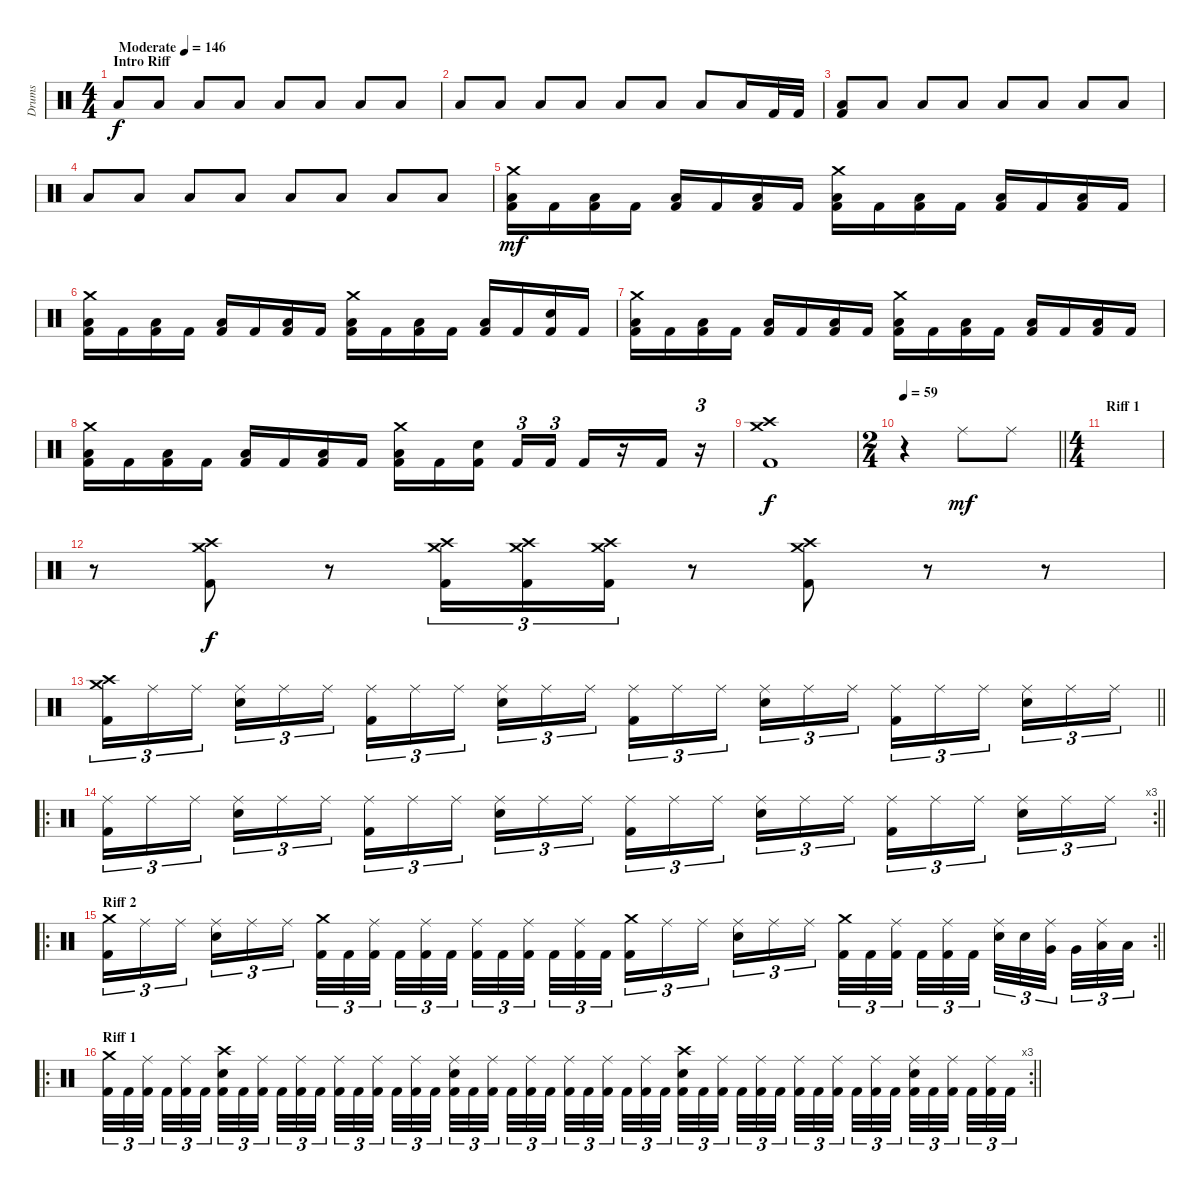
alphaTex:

\track ("Drums" "Drums") {instrument percussion}
\staff {score}
\articulation defaults
\ts (4 4)
\section ("" "Intro Riff")
\tempo (146 "Moderate")
\clef neutral
\ks c "Low Floor Tom (hit)".8{dy f} "Low Floor Tom (hit)".8 "Low Floor Tom (hit)".8 "Low Floor Tom (hit)".8 "Low Floor Tom (hit)".8 "Low Floor Tom (hit)".8 "Low Floor Tom (hit)".8 "Low Floor Tom (hit)".8
|
"Low Floor Tom (hit)".8 "Low Floor Tom (hit)".8 "Low Floor Tom (hit)".8 "Low Floor Tom (hit)".8 "Low Floor Tom (hit)".8 "Low Floor Tom (hit)".8 "Low Floor Tom (hit)".8 "Low Floor Tom (hit)".16 "Kick (hit) 2".32 "Kick (hit) 2".32 |
("Low Floor Tom (hit)" "Kick (hit) 2").8 "Low Floor Tom (hit)".8 "Low Floor Tom (hit)".8 "Low Floor Tom (hit)".8 "Low Floor Tom (hit)".8 "Low Floor Tom (hit)".8 "Low Floor Tom (hit)".8 "Low Floor Tom (hit)".8 |
"Low Floor Tom (hit)".8 "Low Floor Tom (hit)".8 "Low Floor Tom (hit)".8 "Low Floor Tom (hit)".8 "Low Floor Tom (hit)".8 "Low Floor Tom (hit)".8 "Low Floor Tom (hit)".8 "Low Floor Tom (hit)".8 |
("Crash medium (hit)" "Low Floor Tom (hit)" "Kick (hit) 2").16{dy mf} "Kick (hit) 2".16 ("Low Floor Tom (hit)" "Kick (hit) 2").16 "Kick (hit) 2".16 ("Low Floor Tom (hit)" "Kick (hit) 2").16 "Kick (hit) 2".16 ("Low Floor Tom (hit)" "Kick (hit) 2").16 "Kick (hit) 2".16 ("Crash medium (hit)" "Low Floor Tom (hit)" "Kick (hit) 2").16 "Kick (hit) 2".16 ("Low Floor Tom (hit)" "Kick (hit) 2").16 "Kick (hit) 2".16 ("Low Floor Tom (hit)" "Kick (hit) 2").16 "Kick (hit) 2".16 ("Low Floor Tom (hit)" "Kick (hit) 2").16 "Kick (hit) 2".16 |
("Crash medium (hit)" "Low Floor Tom (hit)" "Kick (hit) 2").16 "Kick (hit) 2".16 ("Low Floor Tom (hit)" "Kick (hit) 2").16 "Kick (hit) 2".16 ("Low Floor Tom (hit)" "Kick (hit) 2").16 "Kick (hit) 2".16 ("Low Floor Tom (hit)" "Kick (hit) 2").16 "Kick (hit) 2".16 ("Crash medium (hit)" "Low Floor Tom (hit)" "Kick (hit) 2").16 "Kick (hit) 2".16 ("Low Floor Tom (hit)" "Kick (hit) 2").16 "Kick (hit) 2".16 ("Low Floor Tom (hit)" "Kick (hit) 2").16 "Kick (hit) 2".16 ("Snare (hit) 2" "Kick (hit) 2").16 "Kick (hit) 2".16 |
("Crash medium (hit)" "Low Floor Tom (hit)" "Kick (hit) 2").16 "Kick (hit) 2".16 ("Low Floor Tom (hit)" "Kick (hit) 2").16 "Kick (hit) 2".16 ("Low Floor Tom (hit)" "Kick (hit) 2").16 "Kick (hit) 2".16 ("Low Floor Tom (hit)" "Kick (hit) 2").16 "Kick (hit) 2".16 ("Crash medium (hit)" "Low Floor Tom (hit)" "Kick (hit) 2").16 "Kick (hit) 2".16 ("Low Floor Tom (hit)" "Kick (hit) 2").16 "Kick (hit) 2".16 ("Low Floor Tom (hit)" "Kick (hit) 2").16 "Kick (hit) 2".16 ("Low Floor Tom (hit)" "Kick (hit) 2").16 "Kick (hit) 2".16 |
("Crash medium (hit)" "Low Floor Tom (hit)" "Kick (hit) 2").16 "Kick (hit) 2".16 ("Low Floor Tom (hit)" "Kick (hit) 2").16 "Kick (hit) 2".16 ("Low Floor Tom (hit)" "Kick (hit) 2").16 "Kick (hit) 2".16 ("Low Floor Tom (hit)" "Kick (hit) 2").16 "Kick (hit) 2".16 ("Crash medium (hit)" "Low Floor Tom (hit)" "Kick (hit) 2").16 "Kick (hit) 2".16 ("Snare (hit) 2" "Kick (hit) 2").16{beam splitsecondary} "Kick (hit) 2".16{tu (3 2)} "Kick (hit) 2".16{tu (3 2)} "Kick (hit) 2".16 r.16 "Kick (hit) 2".16 r.16{tu (3 2)} |
("Crash medium (hit)" "Crash high (hit)" "Kick (hit) 2").1{dy f} |
\ts (2 4)
\tempo 59
\barLineRight lightlight
r.4 "Ride (middle)".8{dy mf} "Ride (middle)".8 |
\ts (4 4)
\section ("" "Riff 1")
|
r.8 ("Crash medium (hit)" "Crash high (hit)" "Kick (hit) 2").8{dy f} r.8 ("Crash medium (hit)" "Crash high (hit)" "Kick (hit) 2").16{tu (3 2)} ("Crash medium (hit)" "Crash high (hit)" "Kick (hit) 2").16{tu (3 2)} ("Crash medium (hit)" "Crash high (hit)" "Kick (hit) 2").16{tu (3 2)} r.8 ("Crash medium (hit)" "Crash high (hit)" "Kick (hit) 2").8 r.8 r.8 |
\barLineRight lightlight
("Crash medium (hit)" "Crash high (hit)" "Kick (hit) 2").16{tu (3 2)} "Ride (middle)".16{tu (3 2)} "Ride (middle)".16{tu (3 2) beam splitsecondary} ("Ride (middle)" "Snare (hit) 2").16{tu (3 2)} "Ride (middle)".16{tu (3 2)} "Ride (middle)".16{tu (3 2)} ("Ride (middle)" "Kick (hit) 2").16{tu (3 2)} "Ride (middle)".16{tu (3 2)} "Ride (middle)".16{tu (3 2) beam splitsecondary} ("Ride (middle)" "Snare (hit) 2").16{tu (3 2)} "Ride (middle)".16{tu (3 2)} "Ride (middle)".16{tu (3 2)} ("Ride (middle)" "Kick (hit) 2").16{tu (3 2)} "Ride (middle)".16{tu (3 2)} "Ride (middle)".16{tu (3 2) beam splitsecondary} ("Ride (middle)" "Snare (hit) 2").16{tu (3 2)} "Ride (middle)".16{tu (3 2)} "Ride (middle)".16{tu (3 2)} ("Ride (middle)" "Kick (hit) 2").16{tu (3 2)} "Ride (middle)".16{tu (3 2)} "Ride (middle)".16{tu (3 2) beam splitsecondary} ("Ride (middle)" "Snare (hit) 2").16{tu (3 2)} "Ride (middle)".16{tu (3 2)} "Ride (middle)".16{tu (3 2)} |
\ro
\rc 3
\barLineRight lightlight
("Ride (middle)" "Kick (hit) 2").16{tu (3 2)} "Ride (middle)".16{tu (3 2)} "Ride (middle)".16{tu (3 2) beam splitsecondary} ("Ride (middle)" "Snare (hit) 2").16{tu (3 2)} "Ride (middle)".16{tu (3 2)} "Ride (middle)".16{tu (3 2)} ("Ride (middle)" "Kick (hit) 2").16{tu (3 2)} "Ride (middle)".16{tu (3 2)} "Ride (middle)".16{tu (3 2) beam splitsecondary} ("Ride (middle)" "Snare (hit) 2").16{tu (3 2)} "Ride (middle)".16{tu (3 2)} "Ride (middle)".16{tu (3 2)} ("Ride (middle)" "Kick (hit) 2").16{tu (3 2)} "Ride (middle)".16{tu (3 2)} "Ride (middle)".16{tu (3 2) beam splitsecondary} ("Ride (middle)" "Snare (hit) 2").16{tu (3 2)} "Ride (middle)".16{tu (3 2)} "Ride (middle)".16{tu (3 2)} ("Ride (middle)" "Kick (hit) 2").16{tu (3 2)} "Ride (middle)".16{tu (3 2)} "Ride (middle)".16{tu (3 2) beam splitsecondary} ("Ride (middle)" "Snare (hit) 2").16{tu (3 2)} "Ride (middle)".16{tu (3 2)} "Ride (middle)".16{tu (3 2)} |
\ro
\rc 2
\section ("" "Riff 2")
\barLineRight lightlight
("Crash medium (hit)" "Kick (hit) 2").16{tu (3 2)} "Ride (middle)".16{tu (3 2)} "Ride (middle)".16{tu (3 2) beam splitsecondary} ("Ride (middle)" "Snare (hit) 2").16{tu (3 2)} "Ride (middle)".16{tu (3 2)} "Ride (middle)".16{tu (3 2)} ("Crash medium (hit)" "Kick (hit) 2").32{tu (3 2)} "Kick (hit) 2".32{tu (3 2)} ("Ride (middle)" "Kick (hit) 2").32{tu (3 2) beam splitsecondary} "Kick (hit) 2".32{tu (3 2)} ("Ride (middle)" "Kick (hit) 2").32{tu (3 2)} "Kick (hit) 2".32{tu (3 2) beam splitsecondary} ("Ride (middle)" "Kick (hit) 2").32{tu (3 2)} "Kick (hit) 2".32{tu (3 2)} ("Ride (middle)" "Kick (hit) 2").32{tu (3 2) beam splitsecondary} "Kick (hit) 2".32{tu (3 2)} ("Ride (middle)" "Kick (hit) 2").32{tu (3 2)} "Kick (hit) 2".32{tu (3 2)} ("Crash medium (hit)" "Kick (hit) 2").16{tu (3 2)} "Ride (middle)".16{tu (3 2)} "Ride (middle)".16{tu (3 2) beam splitsecondary} ("Ride (middle)" "Snare (hit) 2").16{tu (3 2)} "Ride (middle)".16{tu (3 2)} "Ride (middle)".16{tu (3 2)} ("Crash medium (hit)" "Kick (hit) 2").32{tu (3 2)} "Kick (hit) 2".32{tu (3 2)} ("Ride (middle)" "Kick (hit) 2").32{tu (3 2) beam splitsecondary} "Kick (hit) 2".32{tu (3 2)} ("Ride (middle)" "Kick (hit) 2").32{tu (3 2)} "Kick (hit) 2".32{tu (3 2) beam splitsecondary} ("Ride (middle)" "Snare (hit) 2").32{tu (3 2)} "Snare (hit) 2".32{tu (3 2)} ("Ride (middle)" "Very Low Tom (hit)").32{tu (3 2) beam splitsecondary} "Very Low Tom (hit)".32{tu (3 2)} ("Ride (middle)" "Low Floor Tom (hit)").32{tu (3 2)} "Low Floor Tom (hit)".32{tu (3 2)} |
\ro
\rc 3
\section ("" "Riff 1")
\barLineRight lightlight
("Crash medium (hit)" "Kick (hit) 2").32{tu (3 2)} "Kick (hit) 2".32{tu (3 2)} ("Ride (middle)" "Kick (hit) 2").32{tu (3 2) beam splitsecondary} "Kick (hit) 2".32{tu (3 2)} ("Ride (middle)" "Kick (hit) 2").32{tu (3 2)} "Kick (hit) 2".32{tu (3 2) beam splitsecondary} ("Crash high (hit)" "Snare (hit) 2" "Kick (hit) 2").32{tu (3 2)} "Kick (hit) 2".32{tu (3 2)} ("Ride (middle)" "Kick (hit) 2").32{tu (3 2) beam splitsecondary} "Kick (hit) 2".32{tu (3 2)} ("Ride (middle)" "Kick (hit) 2").32{tu (3 2)} "Kick (hit) 2".32{tu (3 2)} ("Ride (middle)" "Kick (hit) 2").32{tu (3 2)} "Kick (hit) 2".32{tu (3 2)} ("Ride (middle)" "Kick (hit) 2").32{tu (3 2) beam splitsecondary} "Kick (hit) 2".32{tu (3 2)} ("Ride (middle)" "Kick (hit) 2").32{tu (3 2)} "Kick (hit) 2".32{tu (3 2) beam splitsecondary} ("Ride (middle)" "Snare (hit) 2" "Kick (hit) 2").32{tu (3 2)} "Kick (hit) 2".32{tu (3 2)} ("Ride (middle)" "Kick (hit) 2").32{tu (3 2) beam splitsecondary} "Kick (hit) 2".32{tu (3 2)} ("Ride (middle)" "Kick (hit) 2").32{tu (3 2)} "Kick (hit) 2".32{tu (3 2)} ("Ride (middle)" "Kick (hit) 2").32{tu (3 2)} "Kick (hit) 2".32{tu (3 2)} ("Ride (middle)" "Kick (hit) 2").32{tu (3 2) beam splitsecondary} "Kick (hit) 2".32{tu (3 2)} ("Ride (middle)" "Kick (hit) 2").32{tu (3 2)} "Kick (hit) 2".32{tu (3 2) beam splitsecondary} ("Crash high (hit)" "Snare (hit) 2" "Kick (hit) 2").32{tu (3 2)} "Kick (hit) 2".32{tu (3 2)} ("Ride (middle)" "Kick (hit) 2").32{tu (3 2) beam splitsecondary} "Kick (hit) 2".32{tu (3 2)} ("Ride (middle)" "Kick (hit) 2").32{tu (3 2)} "Kick (hit) 2".32{tu (3 2)} ("Ride (middle)" "Kick (hit) 2").32{tu (3 2)} "Kick (hit) 2".32{tu (3 2)} ("Ride (middle)" "Kick (hit) 2").32{tu (3 2) beam splitsecondary} "Kick (hit) 2".32{tu (3 2)} ("Ride (middle)" "Kick (hit) 2").32{tu (3 2)} "Kick (hit) 2".32{tu (3 2) beam splitsecondary} ("Ride (middle)" "Snare (hit) 2" "Kick (hit) 2").32{tu (3 2)} "Kick (hit) 2".32{tu (3 2)} ("Ride (middle)" "Kick (hit) 2").32{tu (3 2) beam splitsecondary} "Kick (hit) 2".32{tu (3 2)} ("Ride (middle)" "Kick (hit) 2").32{tu (3 2)} "Kick (hit) 2".32{tu (3 2)}
